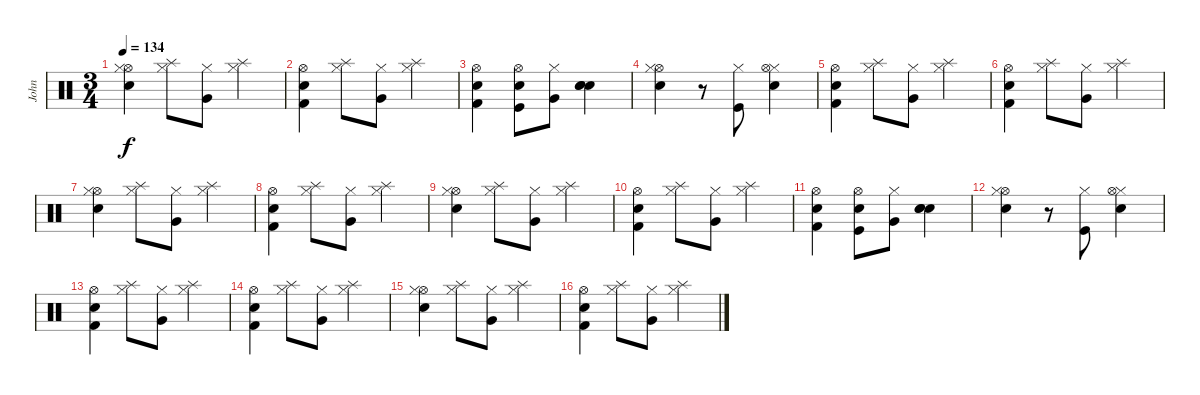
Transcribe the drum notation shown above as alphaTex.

\track ("John" "John") {instrument percussion}
\staff {score}
\articulation defaults
\ts (3 4)
\tempo 134
\clef neutral
\ks c
("Hi-Hat (open)" "Hi-Hat (closed)" "Electric Snare (hit)").4{dy f} ("Hi-Hat (closed)" "Splash (hit)").8 ("Hi-Hat (closed)" "Very Low Tom (hit)").8 ("Hi-Hat (closed)" "Splash (hit)").4 |
("Hi-Hat (open)" "Electric Snare (hit)" "Kick (hit) 2").4 ("Hi-Hat (closed)" "Splash (hit)").8 ("Hi-Hat (closed)" "Very Low Tom (hit)").8 ("Hi-Hat (closed)" "Splash (hit)").4 |
("Hi-Hat (open)" "Electric Snare (hit)" "Kick (hit) 2").4 ("Hi-Hat (open)" "Electric Snare (hit)" "Kick (hit)").8 ("Hi-Hat (closed)" "Very Low Tom (hit)").8 ("Electric Snare (hit)" "Electric Snare (hit)" "Snare (hit) 2").4 |
("Hi-Hat (open)" "Hi-Hat (closed)" "Electric Snare (hit)").4 r.8 ("Hi-Hat (closed)" "Kick (hit)").8 ("Hi-Hat (closed)" "Electric Snare (hit)" "Hi-Hat (open)").4 |
("Hi-Hat (open)" "Electric Snare (hit)" "Kick (hit) 2").4 ("Hi-Hat (closed)" "Splash (hit)").8 ("Hi-Hat (closed)" "Very Low Tom (hit)").8 ("Hi-Hat (closed)" "Splash (hit)").4 |
("Hi-Hat (open)" "Electric Snare (hit)" "Kick (hit) 2").4 ("Hi-Hat (closed)" "Splash (hit)").8 ("Hi-Hat (closed)" "Very Low Tom (hit)").8 ("Hi-Hat (closed)" "Splash (hit)").4 |
("Hi-Hat (open)" "Hi-Hat (closed)" "Electric Snare (hit)").4 ("Hi-Hat (closed)" "Splash (hit)").8 ("Hi-Hat (closed)" "Very Low Tom (hit)").8 ("Hi-Hat (closed)" "Splash (hit)").4 |
("Hi-Hat (open)" "Electric Snare (hit)" "Kick (hit) 2").4 ("Hi-Hat (closed)" "Splash (hit)").8 ("Hi-Hat (closed)" "Very Low Tom (hit)").8 ("Hi-Hat (closed)" "Splash (hit)").4 |
("Hi-Hat (open)" "Hi-Hat (closed)" "Electric Snare (hit)").4 ("Hi-Hat (closed)" "Splash (hit)").8 ("Hi-Hat (closed)" "Very Low Tom (hit)").8 ("Hi-Hat (closed)" "Splash (hit)").4 |
("Hi-Hat (open)" "Electric Snare (hit)" "Kick (hit) 2").4 ("Hi-Hat (closed)" "Splash (hit)").8 ("Hi-Hat (closed)" "Very Low Tom (hit)").8 ("Hi-Hat (closed)" "Splash (hit)").4 |
("Hi-Hat (open)" "Electric Snare (hit)" "Kick (hit) 2").4 ("Hi-Hat (open)" "Electric Snare (hit)" "Kick (hit)").8 ("Hi-Hat (closed)" "Very Low Tom (hit)").8 ("Electric Snare (hit)" "Electric Snare (hit)" "Snare (hit) 2").4 |
("Hi-Hat (open)" "Hi-Hat (closed)" "Electric Snare (hit)").4 r.8 ("Hi-Hat (closed)" "Kick (hit)").8 ("Hi-Hat (closed)" "Electric Snare (hit)" "Hi-Hat (open)").4 |
("Hi-Hat (open)" "Electric Snare (hit)" "Kick (hit) 2").4 ("Hi-Hat (closed)" "Splash (hit)").8 ("Hi-Hat (closed)" "Very Low Tom (hit)").8 ("Hi-Hat (closed)" "Splash (hit)").4 |
("Hi-Hat (open)" "Electric Snare (hit)" "Kick (hit) 2").4 ("Hi-Hat (closed)" "Splash (hit)").8 ("Hi-Hat (closed)" "Very Low Tom (hit)").8 ("Hi-Hat (closed)" "Splash (hit)").4 |
("Hi-Hat (open)" "Hi-Hat (closed)" "Electric Snare (hit)").4 ("Hi-Hat (closed)" "Splash (hit)").8 ("Hi-Hat (closed)" "Very Low Tom (hit)").8 ("Hi-Hat (closed)" "Splash (hit)").4 |
("Hi-Hat (open)" "Electric Snare (hit)" "Kick (hit) 2").4 ("Hi-Hat (closed)" "Splash (hit)").8 ("Hi-Hat (closed)" "Very Low Tom (hit)").8 ("Hi-Hat (closed)" "Splash (hit)").4
